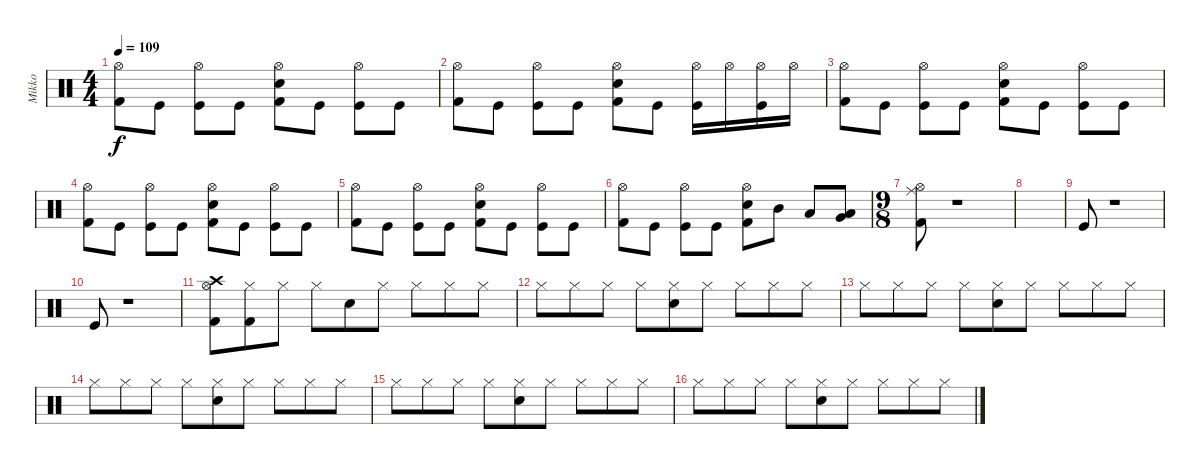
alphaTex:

\track ("Mikko" "Mikko") {instrument percussion}
\staff {score}
\articulation defaults
\ts (4 4)
\tempo 109
\clef neutral
\ks c
("Hi-Hat (open)" "Kick (hit) 2").8{dy f} "Kick (hit)".8 ("Hi-Hat (open)" "Kick (hit)").8 "Kick (hit)".8 ("Hi-Hat (open)" "Kick (hit) 2" "Snare (hit) 2").8 "Kick (hit)".8 ("Hi-Hat (open)" "Kick (hit)").8 "Kick (hit)".8 |
("Hi-Hat (open)" "Kick (hit) 2").8 "Kick (hit)".8 ("Hi-Hat (open)" "Kick (hit)").8 "Kick (hit)".8 ("Hi-Hat (open)" "Kick (hit) 2" "Snare (hit) 2").8 "Kick (hit)".8 ("Hi-Hat (open)" "Kick (hit)").16 "Hi-Hat (open)".16 ("Hi-Hat (open)" "Kick (hit)").16 "Hi-Hat (open)".16 |
("Hi-Hat (open)" "Kick (hit) 2").8 "Kick (hit)".8 ("Hi-Hat (open)" "Kick (hit)").8 "Kick (hit)".8 ("Hi-Hat (open)" "Kick (hit) 2" "Snare (hit) 2").8 "Kick (hit)".8 ("Hi-Hat (open)" "Kick (hit)").8 "Kick (hit)".8 |
("Hi-Hat (open)" "Kick (hit) 2").8 "Kick (hit)".8 ("Hi-Hat (open)" "Kick (hit)").8 "Kick (hit)".8 ("Hi-Hat (open)" "Kick (hit) 2" "Snare (hit) 2").8 "Kick (hit)".8 ("Hi-Hat (open)" "Kick (hit)").8 "Kick (hit)".8 |
("Hi-Hat (open)" "Kick (hit) 2").8 "Kick (hit)".8 ("Hi-Hat (open)" "Kick (hit)").8 "Kick (hit)".8 ("Hi-Hat (open)" "Kick (hit) 2" "Snare (hit) 2").8 "Kick (hit)".8 ("Hi-Hat (open)" "Kick (hit)").8 "Kick (hit)".8 |
("Hi-Hat (open)" "Kick (hit) 2").8 "Kick (hit)".8 ("Hi-Hat (open)" "Kick (hit)").8 "Kick (hit)".8 ("Hi-Hat (open)" "Kick (hit) 2" "Snare (hit) 2").8 "Mid Tom (hit)".8 "Low Tom (hit)".8 ("Very Low Tom (hit)" "Low Floor Tom (hit)").8 |
\ts (9 8)
("Hi-Hat (open)" "Ride (middle)" "Kick (hit) 2").8 r.1 |
|
"Kick (hit)".8 r.1 |
"Kick (hit)".8 r.1 |
("Hi-Hat (open)" "Crash high (hit)" "Kick (hit) 2").8 ("Hi-Hat (closed)" "Kick (hit) 2").8 "Hi-Hat (closed)".8 "Hi-Hat (closed)".8 "Snare (hit) 2".8 "Hi-Hat (closed)".8 "Hi-Hat (closed)".8 "Hi-Hat (closed)".8 "Hi-Hat (closed)".8 |
"Hi-Hat (closed)".8 "Hi-Hat (closed)".8 "Hi-Hat (closed)".8 "Hi-Hat (closed)".8 ("Hi-Hat (closed)" "Snare (hit) 2").8 "Hi-Hat (closed)".8 "Hi-Hat (closed)".8 "Hi-Hat (closed)".8 "Hi-Hat (closed)".8 |
"Hi-Hat (closed)".8 "Hi-Hat (closed)".8 "Hi-Hat (closed)".8 "Hi-Hat (closed)".8 ("Hi-Hat (closed)" "Snare (hit) 2").8 "Hi-Hat (closed)".8 "Hi-Hat (closed)".8 "Hi-Hat (closed)".8 "Hi-Hat (closed)".8 |
"Hi-Hat (closed)".8 "Hi-Hat (closed)".8 "Hi-Hat (closed)".8 "Hi-Hat (closed)".8 ("Hi-Hat (closed)" "Snare (hit) 2").8 "Hi-Hat (closed)".8 "Hi-Hat (closed)".8 "Hi-Hat (closed)".8 "Hi-Hat (closed)".8 |
"Hi-Hat (closed)".8 "Hi-Hat (closed)".8 "Hi-Hat (closed)".8 "Hi-Hat (closed)".8 ("Hi-Hat (closed)" "Snare (hit) 2").8 "Hi-Hat (closed)".8 "Hi-Hat (closed)".8 "Hi-Hat (closed)".8 "Hi-Hat (closed)".8 |
"Hi-Hat (closed)".8 "Hi-Hat (closed)".8 "Hi-Hat (closed)".8 "Hi-Hat (closed)".8 ("Hi-Hat (closed)" "Snare (hit) 2").8 "Hi-Hat (closed)".8 "Hi-Hat (closed)".8 "Hi-Hat (closed)".8 "Hi-Hat (closed)".8
